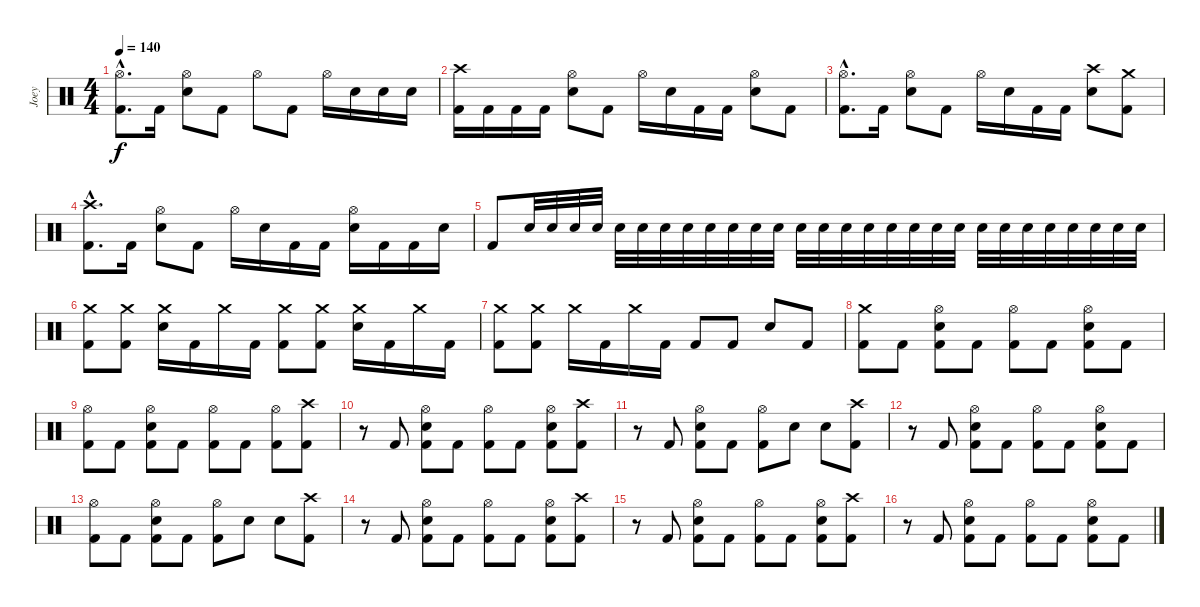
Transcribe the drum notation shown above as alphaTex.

\track ("Joey" "Joey") {instrument percussion}
\staff {score}
\articulation defaults
\ts (4 4)
\tempo 140
\clef neutral
\ks c
("Hi-Hat (open)"{hac} "Kick (hit) 2"{hac}).8{d dy f} "Kick (hit) 2".16 ("Hi-Hat (open)" "Electric Snare (hit)").8 "Kick (hit) 2".8 "Hi-Hat (open)".8 "Kick (hit) 2".8 "Hi-Hat (open)".16 "Electric Snare (hit)".16 "Electric Snare (hit)".16 "Electric Snare (hit)".16 |
("Crash high (hit)" "Kick (hit) 2").16 "Kick (hit) 2".16 "Kick (hit) 2".16 "Kick (hit) 2".16 ("Hi-Hat (open)" "Electric Snare (hit)").8 "Kick (hit) 2".8 "Hi-Hat (open)".16 "Electric Snare (hit)".16 "Kick (hit) 2".16 "Kick (hit) 2".16 ("Hi-Hat (open)" "Electric Snare (hit)").8 "Kick (hit) 2".8 |
("Hi-Hat (open)"{hac} "Kick (hit) 2"{hac}).8{d} "Kick (hit) 2".16 ("Hi-Hat (open)" "Electric Snare (hit)").8 "Kick (hit) 2".8 "Hi-Hat (open)".16 "Electric Snare (hit)".16 "Kick (hit) 2".16 "Kick (hit) 2".16 ("Crash high (hit)" "Electric Snare (hit)").8 ("Crash medium (hit)" "Kick (hit) 2").8 |
("Crash high (hit)"{hac} "Kick (hit) 2"{hac}).8{d} "Kick (hit) 2".16 ("Hi-Hat (open)" "Electric Snare (hit)").8 "Kick (hit) 2".8 "Hi-Hat (open)".16 "Electric Snare (hit)".16 "Kick (hit) 2".16 "Kick (hit) 2".16 ("Hi-Hat (open)" "Electric Snare (hit)").16 "Kick (hit) 2".16 "Kick (hit) 2".16 "Electric Snare (hit)".16 |
"Kick (hit) 2".8 "Electric Snare (hit)".32 "Electric Snare (hit)".32 "Electric Snare (hit)".32 "Electric Snare (hit)".32 "Electric Snare (hit)".32 "Electric Snare (hit)".32 "Electric Snare (hit)".32 "Electric Snare (hit)".32 "Electric Snare (hit)".32 "Electric Snare (hit)".32 "Electric Snare (hit)".32 "Electric Snare (hit)".32 "Electric Snare (hit)".32 "Electric Snare (hit)".32 "Electric Snare (hit)".32 "Electric Snare (hit)".32 "Electric Snare (hit)".32 "Electric Snare (hit)".32 "Electric Snare (hit)".32 "Electric Snare (hit)".32 "Electric Snare (hit)".32 "Electric Snare (hit)".32 "Electric Snare (hit)".32 "Electric Snare (hit)".32 "Electric Snare (hit)".32 "Electric Snare (hit)".32 "Electric Snare (hit)".32 "Electric Snare (hit)".32 |
("Crash medium (hit)" "Kick (hit) 2").8 ("Crash medium (hit)" "Kick (hit) 2").8 ("Crash medium (hit)" "Electric Snare (hit)").16 "Kick (hit) 2".16 "Crash medium (hit)".16 "Kick (hit) 2".16 ("Crash medium (hit)" "Kick (hit) 2").8 ("Crash medium (hit)" "Kick (hit) 2").8 ("Crash medium (hit)" "Electric Snare (hit)").16 "Kick (hit) 2".16 "Crash medium (hit)".16 "Kick (hit) 2".16 |
("Crash medium (hit)" "Kick (hit) 2").8 ("Crash medium (hit)" "Kick (hit) 2").8 "Crash medium (hit)".16 "Kick (hit) 2".16 "Crash medium (hit)".16 "Kick (hit) 2".16 "Kick (hit) 2".8 "Kick (hit) 2".8 "Electric Snare (hit)".8 "Kick (hit) 2".8 |
("Crash medium (hit)" "Kick (hit) 2").8 "Kick (hit) 2".8 ("Hi-Hat (open)" "Electric Snare (hit)" "Kick (hit) 2").8 "Kick (hit) 2".8 ("Hi-Hat (open)" "Kick (hit) 2").8 "Kick (hit) 2".8 ("Hi-Hat (open)" "Electric Snare (hit)" "Kick (hit) 2").8 "Kick (hit) 2".8 |
("Hi-Hat (open)" "Kick (hit) 2").8 "Kick (hit) 2".8 ("Hi-Hat (open)" "Electric Snare (hit)" "Kick (hit) 2").8 "Kick (hit) 2".8 ("Hi-Hat (open)" "Kick (hit) 2").8 "Kick (hit) 2".8 ("Hi-Hat (open)" "Kick (hit) 2").8 ("Crash high (hit)" "Kick (hit) 2").8 |
r.8 "Kick (hit) 2".8 ("Hi-Hat (open)" "Electric Snare (hit)" "Kick (hit) 2").8 "Kick (hit) 2".8 ("Hi-Hat (open)" "Kick (hit) 2").8 "Kick (hit) 2".8 ("Hi-Hat (open)" "Electric Snare (hit)" "Kick (hit) 2").8 ("Crash high (hit)" "Kick (hit) 2").8 |
r.8 "Kick (hit) 2".8 ("Hi-Hat (open)" "Electric Snare (hit)" "Kick (hit) 2").8 "Kick (hit) 2".8 ("Hi-Hat (open)" "Kick (hit) 2").8 "Electric Snare (hit)".8 "Electric Snare (hit)".8 ("Crash high (hit)" "Kick (hit) 2").8 |
r.8 "Kick (hit) 2".8 ("Hi-Hat (open)" "Electric Snare (hit)" "Kick (hit) 2").8 "Kick (hit) 2".8 ("Hi-Hat (open)" "Kick (hit) 2").8 "Kick (hit) 2".8 ("Hi-Hat (open)" "Electric Snare (hit)" "Kick (hit) 2").8 "Kick (hit) 2".8 |
("Hi-Hat (open)" "Kick (hit) 2").8 "Kick (hit) 2".8 ("Hi-Hat (open)" "Electric Snare (hit)" "Kick (hit) 2").8 "Kick (hit) 2".8 ("Hi-Hat (open)" "Kick (hit) 2").8 "Electric Snare (hit)".8 "Electric Snare (hit)".8 ("Crash high (hit)" "Kick (hit) 2").8 |
r.8 "Kick (hit) 2".8 ("Hi-Hat (open)" "Electric Snare (hit)" "Kick (hit) 2").8 "Kick (hit) 2".8 ("Hi-Hat (open)" "Kick (hit) 2").8 "Kick (hit) 2".8 ("Hi-Hat (open)" "Electric Snare (hit)" "Kick (hit) 2").8 ("Crash high (hit)" "Kick (hit) 2").8 |
r.8 "Kick (hit) 2".8 ("Hi-Hat (open)" "Electric Snare (hit)" "Kick (hit) 2").8 "Kick (hit) 2".8 ("Hi-Hat (open)" "Kick (hit) 2").8 "Kick (hit) 2".8 ("Hi-Hat (open)" "Electric Snare (hit)" "Kick (hit) 2").8 ("Crash high (hit)" "Kick (hit) 2").8 |
r.8 "Kick (hit) 2".8 ("Hi-Hat (open)" "Electric Snare (hit)" "Kick (hit) 2").8 "Kick (hit) 2".8 ("Hi-Hat (open)" "Kick (hit) 2").8 "Kick (hit) 2".8 ("Hi-Hat (open)" "Electric Snare (hit)" "Kick (hit) 2").8 "Kick (hit) 2".8
